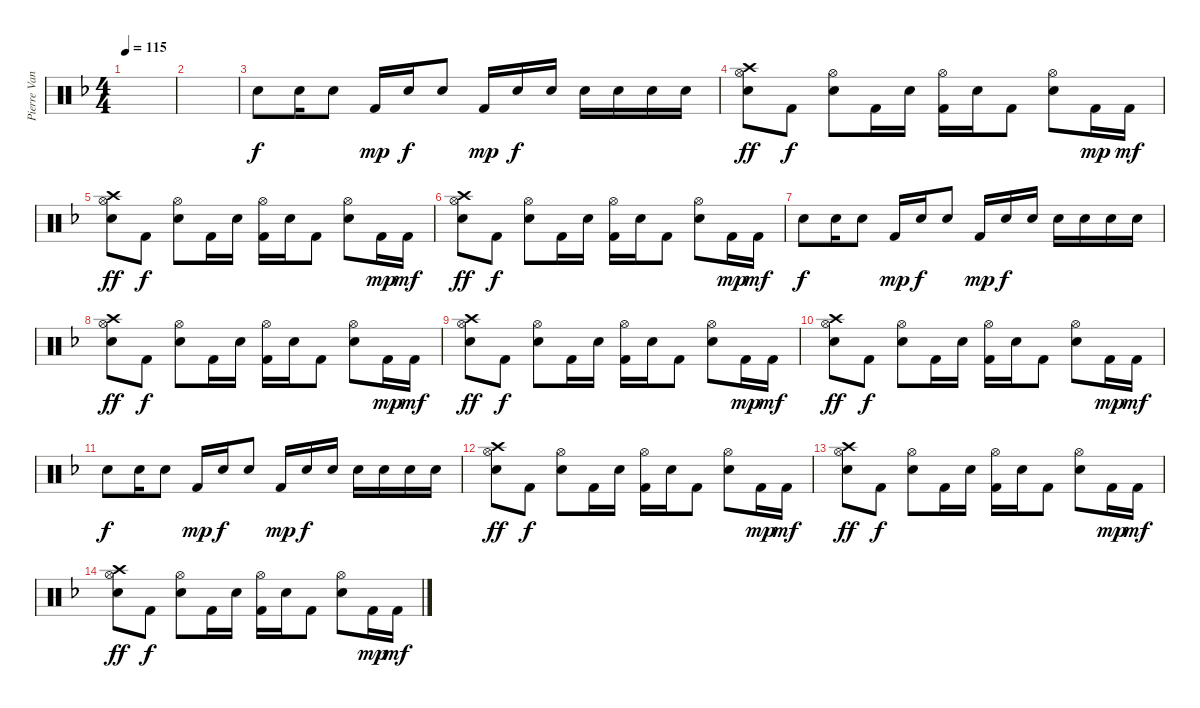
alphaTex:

\track ("Pierre Van Der Linden" "Pierre Van") {instrument percussion}
\staff {score}
\articulation defaults
\ts (4 4)
\tempo 115
\clef neutral
\ks f
|
|
"Electric Snare (hit)".8{dy f} "Electric Snare (hit)".16 "Electric Snare (hit)".8 "Kick (hit) 2".16{dy mp} "Electric Snare (hit)".16{dy f} "Electric Snare (hit)".8 "Kick (hit) 2".16{dy mp} "Electric Snare (hit)".16{dy f} "Electric Snare (hit)".16 "Electric Snare (hit)".16 "Electric Snare (hit)".16 "Electric Snare (hit)".16 "Electric Snare (hit)".16 |
("Hi-Hat (open)" "Crash high (hit)" "Electric Snare (hit)").8{dy ff} "Kick (hit) 2".8{dy f} ("Hi-Hat (open)" "Electric Snare (hit)").8 "Kick (hit) 2".16 "Electric Snare (hit)".16 ("Hi-Hat (open)" "Kick (hit) 2").16 "Electric Snare (hit)".16 "Kick (hit) 2".8 ("Hi-Hat (open)" "Electric Snare (hit)").8 "Kick (hit) 2".16{dy mp} "Kick (hit) 2".16{dy mf} |
("Hi-Hat (open)" "Crash high (hit)" "Electric Snare (hit)").8{dy ff} "Kick (hit) 2".8{dy f} ("Hi-Hat (open)" "Electric Snare (hit)").8 "Kick (hit) 2".16 "Electric Snare (hit)".16 ("Hi-Hat (open)" "Kick (hit) 2").16 "Electric Snare (hit)".16 "Kick (hit) 2".8 ("Hi-Hat (open)" "Electric Snare (hit)").8 "Kick (hit) 2".16{dy mp} "Kick (hit) 2".16{dy mf} |
("Hi-Hat (open)" "Crash high (hit)" "Electric Snare (hit)").8{dy ff} "Kick (hit) 2".8{dy f} ("Hi-Hat (open)" "Electric Snare (hit)").8 "Kick (hit) 2".16 "Electric Snare (hit)".16 ("Hi-Hat (open)" "Kick (hit) 2").16 "Electric Snare (hit)".16 "Kick (hit) 2".8 ("Hi-Hat (open)" "Electric Snare (hit)").8 "Kick (hit) 2".16{dy mp} "Kick (hit) 2".16{dy mf} |
"Electric Snare (hit)".8{dy f} "Electric Snare (hit)".16 "Electric Snare (hit)".8 "Kick (hit) 2".16{dy mp} "Electric Snare (hit)".16{dy f} "Electric Snare (hit)".8 "Kick (hit) 2".16{dy mp} "Electric Snare (hit)".16{dy f} "Electric Snare (hit)".16 "Electric Snare (hit)".16 "Electric Snare (hit)".16 "Electric Snare (hit)".16 "Electric Snare (hit)".16 |
("Hi-Hat (open)" "Crash high (hit)" "Electric Snare (hit)").8{dy ff} "Kick (hit) 2".8{dy f} ("Hi-Hat (open)" "Electric Snare (hit)").8 "Kick (hit) 2".16 "Electric Snare (hit)".16 ("Hi-Hat (open)" "Kick (hit) 2").16 "Electric Snare (hit)".16 "Kick (hit) 2".8 ("Hi-Hat (open)" "Electric Snare (hit)").8 "Kick (hit) 2".16{dy mp} "Kick (hit) 2".16{dy mf} |
("Hi-Hat (open)" "Crash high (hit)" "Electric Snare (hit)").8{dy ff} "Kick (hit) 2".8{dy f} ("Hi-Hat (open)" "Electric Snare (hit)").8 "Kick (hit) 2".16 "Electric Snare (hit)".16 ("Hi-Hat (open)" "Kick (hit) 2").16 "Electric Snare (hit)".16 "Kick (hit) 2".8 ("Hi-Hat (open)" "Electric Snare (hit)").8 "Kick (hit) 2".16{dy mp} "Kick (hit) 2".16{dy mf} |
("Hi-Hat (open)" "Crash high (hit)" "Electric Snare (hit)").8{dy ff} "Kick (hit) 2".8{dy f} ("Hi-Hat (open)" "Electric Snare (hit)").8 "Kick (hit) 2".16 "Electric Snare (hit)".16 ("Hi-Hat (open)" "Kick (hit) 2").16 "Electric Snare (hit)".16 "Kick (hit) 2".8 ("Hi-Hat (open)" "Electric Snare (hit)").8 "Kick (hit) 2".16{dy mp} "Kick (hit) 2".16{dy mf} |
"Electric Snare (hit)".8{dy f} "Electric Snare (hit)".16 "Electric Snare (hit)".8 "Kick (hit) 2".16{dy mp} "Electric Snare (hit)".16{dy f} "Electric Snare (hit)".8 "Kick (hit) 2".16{dy mp} "Electric Snare (hit)".16{dy f} "Electric Snare (hit)".16 "Electric Snare (hit)".16 "Electric Snare (hit)".16 "Electric Snare (hit)".16 "Electric Snare (hit)".16 |
("Hi-Hat (open)" "Crash high (hit)" "Electric Snare (hit)").8{dy ff} "Kick (hit) 2".8{dy f} ("Hi-Hat (open)" "Electric Snare (hit)").8 "Kick (hit) 2".16 "Electric Snare (hit)".16 ("Hi-Hat (open)" "Kick (hit) 2").16 "Electric Snare (hit)".16 "Kick (hit) 2".8 ("Hi-Hat (open)" "Electric Snare (hit)").8 "Kick (hit) 2".16{dy mp} "Kick (hit) 2".16{dy mf} |
("Hi-Hat (open)" "Crash high (hit)" "Electric Snare (hit)").8{dy ff} "Kick (hit) 2".8{dy f} ("Hi-Hat (open)" "Electric Snare (hit)").8 "Kick (hit) 2".16 "Electric Snare (hit)".16 ("Hi-Hat (open)" "Kick (hit) 2").16 "Electric Snare (hit)".16 "Kick (hit) 2".8 ("Hi-Hat (open)" "Electric Snare (hit)").8 "Kick (hit) 2".16{dy mp} "Kick (hit) 2".16{dy mf} |
("Hi-Hat (open)" "Crash high (hit)" "Electric Snare (hit)").8{dy ff} "Kick (hit) 2".8{dy f} ("Hi-Hat (open)" "Electric Snare (hit)").8 "Kick (hit) 2".16 "Electric Snare (hit)".16 ("Hi-Hat (open)" "Kick (hit) 2").16 "Electric Snare (hit)".16 "Kick (hit) 2".8 ("Hi-Hat (open)" "Electric Snare (hit)").8 "Kick (hit) 2".16{dy mp} "Kick (hit) 2".16{dy mf}
